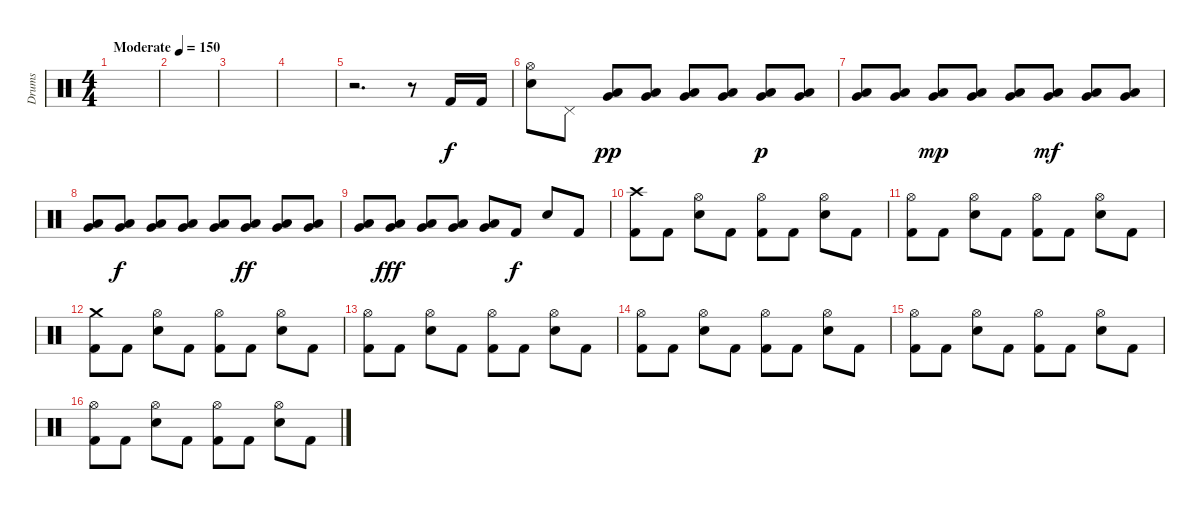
\track ("Drums" "Drums") {instrument percussion}
\staff {score}
\articulation defaults
\ts (4 4)
\tempo (150 "Moderate")
\clef neutral
\ks c
|
|
|
|
r.2{d} r.8 "Kick (hit) 2".16 "Kick (hit) 2".16 |
("Hi-Hat (open)" "Electric Snare (hit)").8 "Pedal Hi-Hat (hit)".8 ("Low Tom (hit)" "Very Low Tom (hit)").8{dy pp} ("Low Tom (hit)" "Very Low Tom (hit)").8 ("Low Tom (hit)" "Very Low Tom (hit)").8 ("Low Tom (hit)" "Very Low Tom (hit)").8 ("Low Tom (hit)" "Very Low Tom (hit)").8{dy p} ("Low Tom (hit)" "Very Low Tom (hit)").8 |
("Low Tom (hit)" "Very Low Tom (hit)").8 ("Low Tom (hit)" "Very Low Tom (hit)").8 ("Low Tom (hit)" "Very Low Tom (hit)").8{dy mp} ("Low Tom (hit)" "Very Low Tom (hit)").8 ("Low Tom (hit)" "Very Low Tom (hit)").8 ("Low Tom (hit)" "Very Low Tom (hit)").8{dy mf} ("Low Tom (hit)" "Very Low Tom (hit)").8 ("Low Tom (hit)" "Very Low Tom (hit)").8 |
("Low Tom (hit)" "Very Low Tom (hit)").8 ("Low Tom (hit)" "Very Low Tom (hit)").8{dy f} ("Low Tom (hit)" "Very Low Tom (hit)").8 ("Low Tom (hit)" "Very Low Tom (hit)").8 ("Low Tom (hit)" "Very Low Tom (hit)").8 ("Low Tom (hit)" "Very Low Tom (hit)").8{dy ff} ("Low Tom (hit)" "Very Low Tom (hit)").8 ("Low Tom (hit)" "Very Low Tom (hit)").8 |
("Low Tom (hit)" "Very Low Tom (hit)").8 ("Low Tom (hit)" "Very Low Tom (hit)").8{dy fff} ("Low Tom (hit)" "Very Low Tom (hit)").8 ("Low Tom (hit)" "Very Low Tom (hit)").8 ("Low Tom (hit)" "Very Low Tom (hit)").8 "Kick (hit) 2".8{dy f} "Electric Snare (hit)".8 "Kick (hit) 2".8 |
("Crash high (hit)" "Kick (hit) 2").8 "Kick (hit) 2".8 ("Hi-Hat (open)" "Electric Snare (hit)").8 "Kick (hit) 2".8 ("Hi-Hat (open)" "Kick (hit) 2").8 "Kick (hit) 2".8 ("Hi-Hat (open)" "Electric Snare (hit)").8 "Kick (hit) 2".8 |
("Hi-Hat (open)" "Kick (hit) 2").8 "Kick (hit) 2".8 ("Hi-Hat (open)" "Electric Snare (hit)").8 "Kick (hit) 2".8 ("Hi-Hat (open)" "Kick (hit) 2").8 "Kick (hit) 2".8 ("Hi-Hat (open)" "Electric Snare (hit)").8 "Kick (hit) 2".8 |
("Crash medium (hit)" "Kick (hit) 2").8 "Kick (hit) 2".8 ("Hi-Hat (open)" "Electric Snare (hit)").8 "Kick (hit) 2".8 ("Hi-Hat (open)" "Kick (hit) 2").8 "Kick (hit) 2".8 ("Hi-Hat (open)" "Electric Snare (hit)").8 "Kick (hit) 2".8 |
("Hi-Hat (open)" "Kick (hit) 2").8 "Kick (hit) 2".8 ("Hi-Hat (open)" "Electric Snare (hit)").8 "Kick (hit) 2".8 ("Hi-Hat (open)" "Kick (hit) 2").8 "Kick (hit) 2".8 ("Hi-Hat (open)" "Electric Snare (hit)").8 "Kick (hit) 2".8 |
("Hi-Hat (open)" "Kick (hit) 2").8 "Kick (hit) 2".8 ("Hi-Hat (open)" "Electric Snare (hit)").8 "Kick (hit) 2".8 ("Hi-Hat (open)" "Kick (hit) 2").8 "Kick (hit) 2".8 ("Hi-Hat (open)" "Electric Snare (hit)").8 "Kick (hit) 2".8 |
("Hi-Hat (open)" "Kick (hit) 2").8 "Kick (hit) 2".8 ("Hi-Hat (open)" "Electric Snare (hit)").8 "Kick (hit) 2".8 ("Hi-Hat (open)" "Kick (hit) 2").8 "Kick (hit) 2".8 ("Hi-Hat (open)" "Electric Snare (hit)").8 "Kick (hit) 2".8 |
("Hi-Hat (open)" "Kick (hit) 2").8 "Kick (hit) 2".8 ("Hi-Hat (open)" "Electric Snare (hit)").8 "Kick (hit) 2".8 ("Hi-Hat (open)" "Kick (hit) 2").8 "Kick (hit) 2".8 ("Hi-Hat (open)" "Electric Snare (hit)").8 "Kick (hit) 2".8
